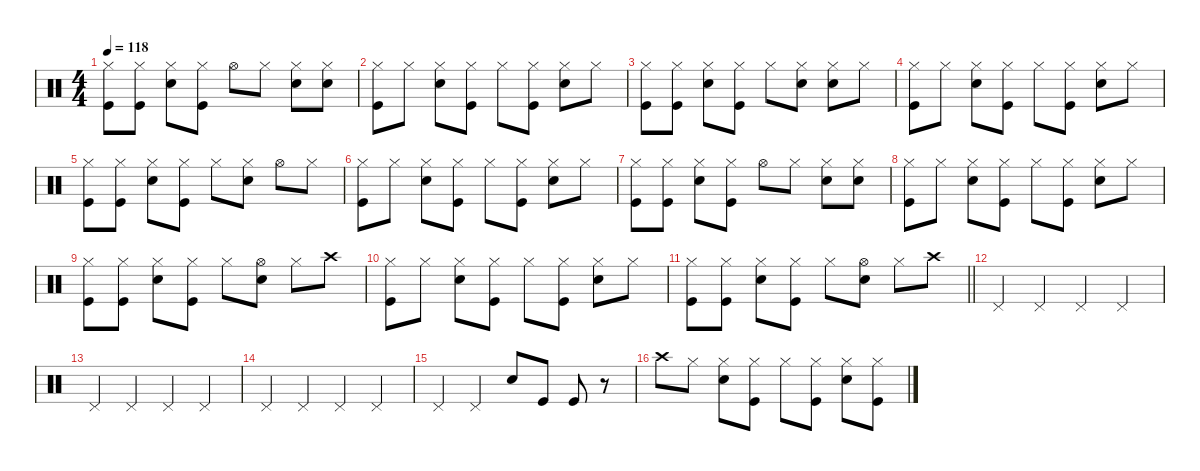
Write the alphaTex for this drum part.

\defaultSystemsLayout 4
\hideDynamics
\bracketExtendMode nobrackets
\singleTrackTrackNamePolicy hidden
\multiTrackTrackNamePolicy hidden
\firstSystemTrackNameMode fullname
\otherSystemsTrackNameOrientation horizontal
\track ("Drums" "drm.") {instrument percussion}
\staff {score}
\articulation defaults
\ts (4 4)
\tempo 118
\clef neutral
\ks c
("Hi-Hat (closed)" "Kick (hit)").8{dy f beam Down} ("Hi-Hat (closed)" "Kick (hit)").8{beam Down} ("Hi-Hat (closed)" "Snare (hit) 2").8{beam Down} ("Hi-Hat (closed)" "Kick (hit)").8{beam Down} "Hi-Hat (open)".8{beam Down} "Hi-Hat (closed)".8{beam Down} ("Hi-Hat (closed)" "Snare (hit) 2").8{beam Down} ("Hi-Hat (closed)" "Snare (hit) 2").8{beam Down} |
("Hi-Hat (closed)" "Kick (hit)").8{beam Down} "Hi-Hat (closed)".8{beam Down} ("Hi-Hat (closed)" "Snare (hit) 2").8{beam Down} ("Hi-Hat (closed)" "Kick (hit)").8{beam Down} "Hi-Hat (closed)".8{beam Down} ("Hi-Hat (closed)" "Kick (hit)").8{beam Down} ("Hi-Hat (closed)" "Snare (hit) 2").8{beam Down} "Hi-Hat (closed)".8{beam Down} |
("Hi-Hat (closed)" "Kick (hit)").8{beam Down} ("Hi-Hat (closed)" "Kick (hit)").8{beam Down} ("Hi-Hat (closed)" "Snare (hit) 2").8{beam Down} ("Hi-Hat (closed)" "Kick (hit)").8{beam Down} "Hi-Hat (closed)".8{beam Down} ("Hi-Hat (closed)" "Snare (hit) 2").8{beam Down} ("Hi-Hat (closed)" "Snare (hit) 2").8{beam Down} "Hi-Hat (closed)".8{beam Down} |
("Hi-Hat (closed)" "Kick (hit)").8{beam Down} "Hi-Hat (closed)".8{beam Down} ("Hi-Hat (closed)" "Snare (hit) 2").8{beam Down} ("Hi-Hat (closed)" "Kick (hit)").8{beam Down} "Hi-Hat (closed)".8{beam Down} ("Hi-Hat (closed)" "Kick (hit)").8{beam Down} ("Hi-Hat (closed)" "Snare (hit) 2").8{beam Down} "Hi-Hat (closed)".8{beam Down} |
("Hi-Hat (closed)" "Kick (hit)").8{beam Down} ("Hi-Hat (closed)" "Kick (hit)").8{beam Down} ("Hi-Hat (closed)" "Snare (hit) 2").8{beam Down} ("Hi-Hat (closed)" "Kick (hit)").8{beam Down} "Hi-Hat (closed)".8{beam Down} ("Hi-Hat (closed)" "Snare (hit) 2").8{beam Down} "Hi-Hat (open)".8{beam Down} "Hi-Hat (closed)".8{beam Down} |
("Hi-Hat (closed)" "Kick (hit)").8{beam Down} "Hi-Hat (closed)".8{beam Down} ("Hi-Hat (closed)" "Snare (hit) 2").8{beam Down} ("Hi-Hat (closed)" "Kick (hit)").8{beam Down} "Hi-Hat (closed)".8{beam Down} ("Hi-Hat (closed)" "Kick (hit)").8{beam Down} ("Hi-Hat (closed)" "Snare (hit) 2").8{beam Down} "Hi-Hat (closed)".8{beam Down} |
("Hi-Hat (closed)" "Kick (hit)").8{beam Down} ("Hi-Hat (closed)" "Kick (hit)").8{beam Down} ("Hi-Hat (closed)" "Snare (hit) 2").8{beam Down} ("Hi-Hat (closed)" "Kick (hit)").8{beam Down} "Hi-Hat (open)".8{beam Down} "Hi-Hat (closed)".8{beam Down} ("Hi-Hat (closed)" "Snare (hit) 2").8{beam Down} ("Hi-Hat (closed)" "Snare (hit) 2").8{beam Down} |
("Hi-Hat (closed)" "Kick (hit)").8{beam Down} "Hi-Hat (closed)".8{beam Down} ("Hi-Hat (closed)" "Snare (hit) 2").8{beam Down} ("Hi-Hat (closed)" "Kick (hit)").8{beam Down} "Hi-Hat (closed)".8{beam Down} ("Hi-Hat (closed)" "Kick (hit)").8{beam Down} ("Hi-Hat (closed)" "Snare (hit) 2").8{beam Down} "Hi-Hat (closed)".8{beam Down} |
("Hi-Hat (closed)" "Kick (hit)").8{beam Down} ("Hi-Hat (closed)" "Kick (hit)").8{beam Down} ("Hi-Hat (closed)" "Snare (hit) 2").8{beam Down} ("Hi-Hat (closed)" "Kick (hit)").8{beam Down} "Hi-Hat (closed)".8{beam Down} ("Hi-Hat (open)" "Snare (hit) 2").8{beam Down} "Hi-Hat (closed)".8{beam Down} "Crash high (hit)".8{beam Down} |
("Hi-Hat (closed)" "Kick (hit)").8{beam Down} "Hi-Hat (closed)".8{beam Down} ("Hi-Hat (closed)" "Snare (hit) 2").8{beam Down} ("Hi-Hat (closed)" "Kick (hit)").8{beam Down} "Hi-Hat (closed)".8{beam Down} ("Hi-Hat (closed)" "Kick (hit)").8{beam Down} ("Hi-Hat (closed)" "Snare (hit) 2").8{beam Down} "Hi-Hat (closed)".8{beam Down} |
\barLineRight lightlight
("Hi-Hat (closed)" "Kick (hit)").8{beam Down} ("Hi-Hat (closed)" "Kick (hit)").8{beam Down} ("Hi-Hat (closed)" "Snare (hit) 2").8{beam Down} ("Hi-Hat (closed)" "Kick (hit)").8{beam Down} "Hi-Hat (closed)".8{beam Down} ("Hi-Hat (open)" "Snare (hit) 2").8{beam Down} "Hi-Hat (closed)".8{beam Down} "Crash high (hit)".8{beam Down} |
"Pedal Hi-Hat (hit)".4{beam Up} "Pedal Hi-Hat (hit)".4{beam Up} "Pedal Hi-Hat (hit)".4{beam Up} "Pedal Hi-Hat (hit)".4{beam Up} |
"Pedal Hi-Hat (hit)".4{beam Up} "Pedal Hi-Hat (hit)".4{beam Up} "Pedal Hi-Hat (hit)".4{beam Up} "Pedal Hi-Hat (hit)".4{beam Up} |
"Pedal Hi-Hat (hit)".4{beam Up} "Pedal Hi-Hat (hit)".4{beam Up} "Pedal Hi-Hat (hit)".4{beam Up} "Pedal Hi-Hat (hit)".4{beam Up} |
"Pedal Hi-Hat (hit)".4{beam Up} "Pedal Hi-Hat (hit)".4{beam Up} "Snare (hit) 2".8{beam Up} "Kick (hit)".8{beam Up} "Kick (hit)".8{beam Up} r.8{beam Up} |
"Crash high (hit)".8{beam Down} "Hi-Hat (closed)".8{beam Down} ("Hi-Hat (closed)" "Snare (hit) 2").8{beam Down} ("Hi-Hat (closed)" "Kick (hit)").8{beam Down} "Hi-Hat (closed)".8{beam Down} ("Hi-Hat (closed)" "Kick (hit)").8{beam Down} ("Hi-Hat (closed)" "Snare (hit) 2").8{beam Down} ("Hi-Hat (closed)" "Kick (hit)").8{beam Down}
